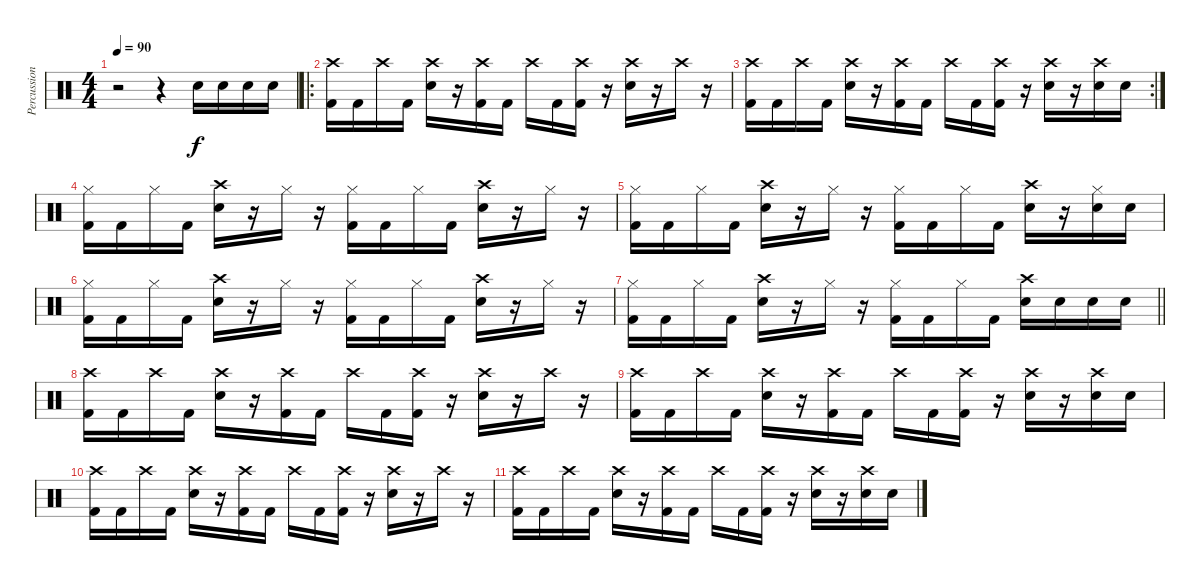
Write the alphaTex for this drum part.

\track ("Percussion" "Percussion") {instrument percussion}
\staff {score}
\articulation defaults
\ts (4 4)
\tempo 90
\clef neutral
\ks c
r.2{dy f} r.4 "Electric Snare (hit)".16 "Electric Snare (hit)".16 "Electric Snare (hit)".16 "Electric Snare (hit)".16 |
\ro
("Crash high (hit)" "Kick (hit) 2").16 "Kick (hit) 2".16 "Crash high (hit)".16 "Kick (hit) 2".16 ("Crash high (hit)" "Electric Snare (hit)").16 r.16 ("Crash high (hit)" "Kick (hit) 2").16 "Kick (hit) 2".16 "Crash high (hit)".16 "Kick (hit) 2".16 ("Crash high (hit)" "Kick (hit) 2").16 r.16 ("Crash high (hit)" "Electric Snare (hit)").16 r.16 "Crash high (hit)".16 r.16 |
\rc 2
("Crash high (hit)" "Kick (hit) 2").16 "Kick (hit) 2".16 "Crash high (hit)".16 "Kick (hit) 2".16 ("Crash high (hit)" "Electric Snare (hit)").16 r.16 ("Crash high (hit)" "Kick (hit) 2").16 "Kick (hit) 2".16 "Crash high (hit)".16 "Kick (hit) 2".16 ("Crash high (hit)" "Kick (hit) 2").16 r.16 ("Crash high (hit)" "Electric Snare (hit)").16 r.16 ("Crash high (hit)" "Electric Snare (hit)").16 "Electric Snare (hit)".16 |
("Hi-Hat (closed)" "Kick (hit) 2").16 "Kick (hit) 2".16 "Hi-Hat (closed)".16 "Kick (hit) 2".16 ("Crash high (hit)" "Electric Snare (hit)").16 r.16 "Hi-Hat (closed)".16 r.16 ("Hi-Hat (closed)" "Kick (hit) 2").16 "Kick (hit) 2".16 "Hi-Hat (closed)".16 "Kick (hit) 2".16 ("Crash high (hit)" "Electric Snare (hit)").16 r.16 "Hi-Hat (closed)".16 r.16 |
("Hi-Hat (closed)" "Kick (hit) 2").16 "Kick (hit) 2".16 "Hi-Hat (closed)".16 "Kick (hit) 2".16 ("Crash high (hit)" "Electric Snare (hit)").16 r.16 "Hi-Hat (closed)".16 r.16 ("Hi-Hat (closed)" "Kick (hit) 2").16 "Kick (hit) 2".16 "Hi-Hat (closed)".16 "Kick (hit) 2".16 ("Crash high (hit)" "Electric Snare (hit)").16 r.16 ("Hi-Hat (closed)" "Electric Snare (hit)").16 "Electric Snare (hit)".16 |
("Hi-Hat (closed)" "Kick (hit) 2").16 "Kick (hit) 2".16 "Hi-Hat (closed)".16 "Kick (hit) 2".16 ("Crash high (hit)" "Electric Snare (hit)").16 r.16 "Hi-Hat (closed)".16 r.16 ("Hi-Hat (closed)" "Kick (hit) 2").16 "Kick (hit) 2".16 "Hi-Hat (closed)".16 "Kick (hit) 2".16 ("Crash high (hit)" "Electric Snare (hit)").16 r.16 "Hi-Hat (closed)".16 r.16 |
\barLineRight lightlight
("Hi-Hat (closed)" "Kick (hit) 2").16 "Kick (hit) 2".16 "Hi-Hat (closed)".16 "Kick (hit) 2".16 ("Crash high (hit)" "Electric Snare (hit)").16 r.16 "Hi-Hat (closed)".16 r.16 ("Hi-Hat (closed)" "Kick (hit) 2").16 "Kick (hit) 2".16 "Hi-Hat (closed)".16 "Kick (hit) 2".16 ("Crash high (hit)" "Electric Snare (hit)").16 "Electric Snare (hit)".16 "Electric Snare (hit)".16 "Electric Snare (hit)".16 |
("Crash high (hit)" "Kick (hit) 2").16 "Kick (hit) 2".16 "Crash high (hit)".16 "Kick (hit) 2".16 ("Crash high (hit)" "Electric Snare (hit)").16 r.16 ("Crash high (hit)" "Kick (hit) 2").16 "Kick (hit) 2".16 "Crash high (hit)".16 "Kick (hit) 2".16 ("Crash high (hit)" "Kick (hit) 2").16 r.16 ("Crash high (hit)" "Electric Snare (hit)").16 r.16 "Crash high (hit)".16 r.16 |
("Crash high (hit)" "Kick (hit) 2").16 "Kick (hit) 2".16 "Crash high (hit)".16 "Kick (hit) 2".16 ("Crash high (hit)" "Electric Snare (hit)").16 r.16 ("Crash high (hit)" "Kick (hit) 2").16 "Kick (hit) 2".16 "Crash high (hit)".16 "Kick (hit) 2".16 ("Crash high (hit)" "Kick (hit) 2").16 r.16 ("Crash high (hit)" "Electric Snare (hit)").16 r.16 ("Crash high (hit)" "Electric Snare (hit)").16 "Electric Snare (hit)".16 |
("Crash high (hit)" "Kick (hit) 2").16 "Kick (hit) 2".16 "Crash high (hit)".16 "Kick (hit) 2".16 ("Crash high (hit)" "Electric Snare (hit)").16 r.16 ("Crash high (hit)" "Kick (hit) 2").16 "Kick (hit) 2".16 "Crash high (hit)".16 "Kick (hit) 2".16 ("Crash high (hit)" "Kick (hit) 2").16 r.16 ("Crash high (hit)" "Electric Snare (hit)").16 r.16 "Crash high (hit)".16 r.16 |
("Crash high (hit)" "Kick (hit) 2").16 "Kick (hit) 2".16 "Crash high (hit)".16 "Kick (hit) 2".16 ("Crash high (hit)" "Electric Snare (hit)").16 r.16 ("Crash high (hit)" "Kick (hit) 2").16 "Kick (hit) 2".16 "Crash high (hit)".16 "Kick (hit) 2".16 ("Crash high (hit)" "Kick (hit) 2").16 r.16 ("Crash high (hit)" "Electric Snare (hit)").16 r.16 ("Crash high (hit)" "Electric Snare (hit)").16 "Electric Snare (hit)".16
